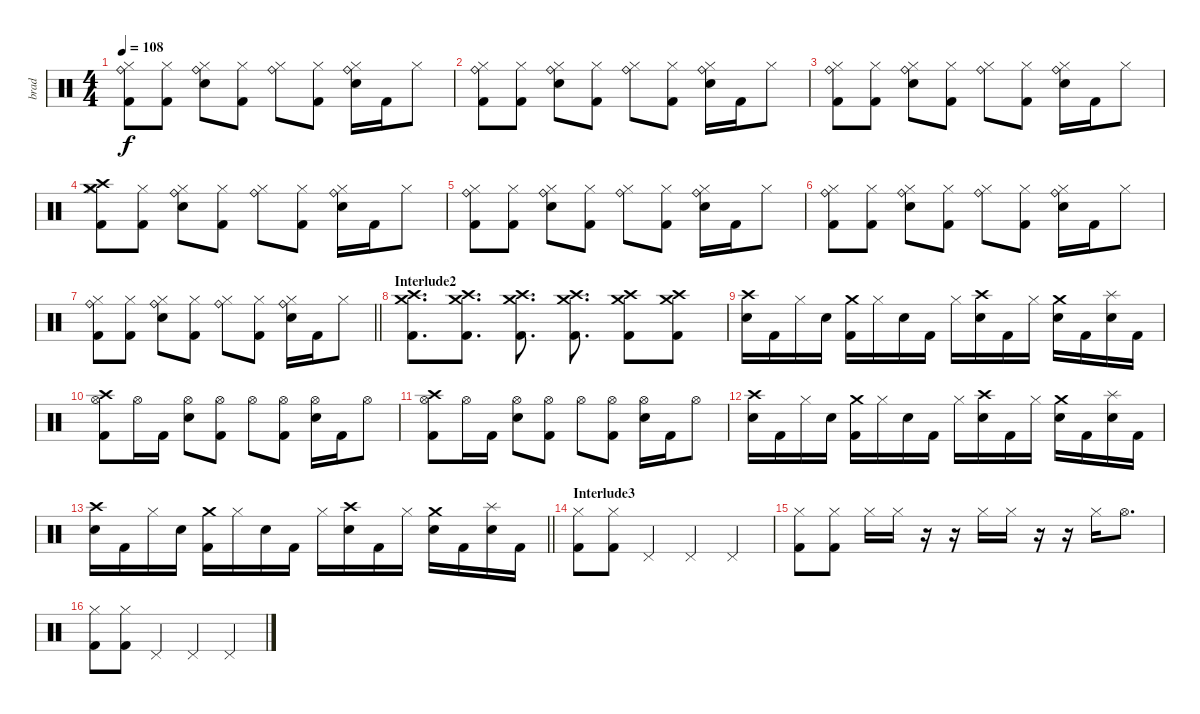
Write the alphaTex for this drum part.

\track ("brad" "brad") {instrument percussion}
\staff {score}
\articulation defaults
\ts (4 4)
\tempo 108
\clef neutral
\ks c
("Ride (bell)" "Hi-Hat (closed)" "Kick (hit) 2").8{dy f} ("Hi-Hat (closed)" "Kick (hit) 2").8 ("Ride (bell)" "Hi-Hat (closed)" "Electric Snare (hit)").8 ("Hi-Hat (closed)" "Kick (hit) 2").8 ("Ride (bell)" "Hi-Hat (closed)").8 ("Hi-Hat (closed)" "Kick (hit) 2").8 ("Ride (bell)" "Hi-Hat (closed)" "Electric Snare (hit)").16 "Kick (hit) 2".16 "Hi-Hat (closed)".8 |
("Ride (bell)" "Hi-Hat (closed)" "Kick (hit) 2").8 ("Hi-Hat (closed)" "Kick (hit) 2").8 ("Ride (bell)" "Hi-Hat (closed)" "Electric Snare (hit)").8 ("Hi-Hat (closed)" "Kick (hit) 2").8 ("Ride (bell)" "Hi-Hat (closed)").8 ("Hi-Hat (closed)" "Kick (hit) 2").8 ("Ride (bell)" "Hi-Hat (closed)" "Electric Snare (hit)").16 "Kick (hit) 2".16 "Hi-Hat (closed)".8 |
("Ride (bell)" "Hi-Hat (closed)" "Kick (hit) 2").8 ("Hi-Hat (closed)" "Kick (hit) 2").8 ("Ride (bell)" "Hi-Hat (closed)" "Electric Snare (hit)").8 ("Hi-Hat (closed)" "Kick (hit) 2").8 ("Ride (bell)" "Hi-Hat (closed)").8 ("Hi-Hat (closed)" "Kick (hit) 2").8 ("Ride (bell)" "Hi-Hat (closed)" "Electric Snare (hit)").16 "Kick (hit) 2".16 "Hi-Hat (closed)".8 |
("Crash medium (hit)" "Crash high (hit)" "Hi-Hat (closed)" "Kick (hit) 2").8 ("Hi-Hat (closed)" "Kick (hit) 2").8 ("Ride (bell)" "Hi-Hat (closed)" "Electric Snare (hit)").8 ("Hi-Hat (closed)" "Kick (hit) 2").8 ("Ride (bell)" "Hi-Hat (closed)").8 ("Hi-Hat (closed)" "Kick (hit) 2").8 ("Ride (bell)" "Hi-Hat (closed)" "Electric Snare (hit)").16 "Kick (hit) 2".16 "Hi-Hat (closed)".8 |
("Ride (bell)" "Hi-Hat (closed)" "Kick (hit) 2").8 ("Hi-Hat (closed)" "Kick (hit) 2").8 ("Ride (bell)" "Hi-Hat (closed)" "Electric Snare (hit)").8 ("Hi-Hat (closed)" "Kick (hit) 2").8 ("Ride (bell)" "Hi-Hat (closed)").8 ("Hi-Hat (closed)" "Kick (hit) 2").8 ("Ride (bell)" "Hi-Hat (closed)" "Electric Snare (hit)").16 "Kick (hit) 2".16 "Hi-Hat (closed)".8 |
("Ride (bell)" "Hi-Hat (closed)" "Kick (hit) 2").8 ("Hi-Hat (closed)" "Kick (hit) 2").8 ("Ride (bell)" "Hi-Hat (closed)" "Electric Snare (hit)").8 ("Hi-Hat (closed)" "Kick (hit) 2").8 ("Ride (bell)" "Hi-Hat (closed)").8 ("Hi-Hat (closed)" "Kick (hit) 2").8 ("Ride (bell)" "Hi-Hat (closed)" "Electric Snare (hit)").16 "Kick (hit) 2".16 "Hi-Hat (closed)".8 |
\barLineRight lightlight
("Ride (bell)" "Hi-Hat (closed)" "Kick (hit) 2").8 ("Hi-Hat (closed)" "Kick (hit) 2").8 ("Ride (bell)" "Hi-Hat (closed)" "Electric Snare (hit)").8 ("Hi-Hat (closed)" "Kick (hit) 2").8 ("Ride (bell)" "Hi-Hat (closed)").8 ("Hi-Hat (closed)" "Kick (hit) 2").8 ("Ride (bell)" "Hi-Hat (closed)" "Electric Snare (hit)").16 "Kick (hit) 2".16 "Hi-Hat (closed)".8 |
\section ("" "Interlude2")
("Crash medium (hit)" "Crash high (hit)" "Kick (hit) 2").8{d} ("Crash medium (hit)" "Crash high (hit)" "Kick (hit) 2").8{d} ("Crash medium (hit)" "Crash high (hit)" "Kick (hit) 2").8{d} ("Crash medium (hit)" "Crash high (hit)" "Kick (hit) 2").8{d} ("Crash medium (hit)" "Crash high (hit)" "Kick (hit) 2").8 ("Crash medium (hit)" "Crash high (hit)" "Kick (hit) 2").8 |
("Crash high (hit)" "Electric Snare (hit)").16 "Kick (hit) 2".16 "Hi-Hat (closed)".16 "Electric Snare (hit)".16 ("Crash medium (hit)" "Kick (hit) 2").16 "Hi-Hat (closed)".16 "Electric Snare (hit)".16 "Kick (hit) 2".16 "Hi-Hat (closed)".16 ("Crash high (hit)" "Electric Snare (hit)").16 "Kick (hit) 2".16 "Hi-Hat (closed)".16 ("Crash medium (hit)" "Electric Snare (hit)").16 "Kick (hit) 2".16 ("Splash (hit)" "Electric Snare (hit)").16 "Kick (hit) 2".16 |
("Crash high (hit)" "Hi-Hat (open)" "Kick (hit) 2").8 "Hi-Hat (open)".16 "Kick (hit) 2".16 ("Hi-Hat (open)" "Electric Snare (hit)").8 ("Hi-Hat (open)" "Kick (hit) 2").8 "Hi-Hat (open)".8 ("Hi-Hat (open)" "Kick (hit) 2").8 ("Hi-Hat (open)" "Electric Snare (hit)").16 "Kick (hit) 2".16 "Hi-Hat (open)".8 |
("Crash high (hit)" "Hi-Hat (open)" "Kick (hit) 2").8 "Hi-Hat (open)".16 "Kick (hit) 2".16 ("Hi-Hat (open)" "Electric Snare (hit)").8 ("Hi-Hat (open)" "Kick (hit) 2").8 "Hi-Hat (open)".8 ("Hi-Hat (open)" "Kick (hit) 2").8 ("Hi-Hat (open)" "Electric Snare (hit)").16 "Kick (hit) 2".16 "Hi-Hat (open)".8 |
("Crash high (hit)" "Electric Snare (hit)").16 "Kick (hit) 2".16 "Hi-Hat (closed)".16 "Electric Snare (hit)".16 ("Crash medium (hit)" "Kick (hit) 2").16 "Hi-Hat (closed)".16 "Electric Snare (hit)".16 "Kick (hit) 2".16 "Hi-Hat (closed)".16 ("Crash high (hit)" "Electric Snare (hit)").16 "Kick (hit) 2".16 "Hi-Hat (closed)".16 ("Crash medium (hit)" "Electric Snare (hit)").16 "Kick (hit) 2".16 ("Splash (hit)" "Electric Snare (hit)").16 "Kick (hit) 2".16 |
\barLineRight lightlight
("Crash high (hit)" "Electric Snare (hit)").16 "Kick (hit) 2".16 "Hi-Hat (closed)".16 "Electric Snare (hit)".16 ("Crash medium (hit)" "Kick (hit) 2").16 "Hi-Hat (closed)".16 "Electric Snare (hit)".16 "Kick (hit) 2".16 "Hi-Hat (closed)".16 ("Crash high (hit)" "Electric Snare (hit)").16 "Kick (hit) 2".16 "Hi-Hat (closed)".16 ("Crash medium (hit)" "Electric Snare (hit)").16 "Kick (hit) 2".16 ("Splash (hit)" "Electric Snare (hit)").16 "Kick (hit) 2".16 |
\section ("" "Interlude3")
("Hi-Hat (closed)" "Kick (hit) 2").8 ("Hi-Hat (closed)" "Kick (hit) 2").8 "Pedal Hi-Hat (hit)".4 "Pedal Hi-Hat (hit)".4 "Pedal Hi-Hat (hit)".4 |
("Hi-Hat (closed)" "Kick (hit) 2").8 ("Hi-Hat (closed)" "Kick (hit) 2").8 "Hi-Hat (closed)".16 "Hi-Hat (closed)".16 r.16 r.16 "Hi-Hat (closed)".16 "Hi-Hat (closed)".16 r.16 r.16 "Hi-Hat (closed)".16 "Hi-Hat (open)".8{d} |
("Hi-Hat (closed)" "Kick (hit) 2").8 ("Hi-Hat (closed)" "Kick (hit) 2").8 "Pedal Hi-Hat (hit)".4 "Pedal Hi-Hat (hit)".4 "Pedal Hi-Hat (hit)".4
